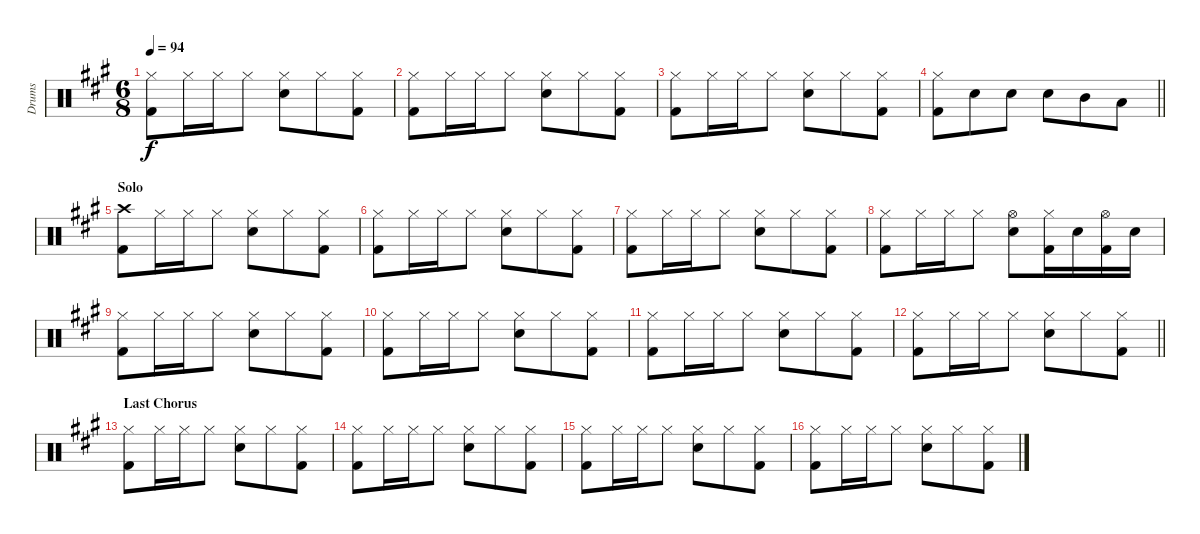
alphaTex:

\track ("Drums" "Drums") {instrument percussion}
\staff {score}
\articulation defaults
\ts (6 8)
\tempo 94
\clef neutral
\ks a
("Hi-Hat (closed)" "Kick (hit) 2").8{dy f} "Hi-Hat (closed)".16 "Hi-Hat (closed)".16 "Hi-Hat (closed)".8 ("Hi-Hat (closed)" "Snare (hit) 2").8 "Hi-Hat (closed)".8 ("Hi-Hat (closed)" "Kick (hit) 2").8 |
("Hi-Hat (closed)" "Kick (hit) 2").8 "Hi-Hat (closed)".16 "Hi-Hat (closed)".16 "Hi-Hat (closed)".8 ("Hi-Hat (closed)" "Snare (hit) 2").8 "Hi-Hat (closed)".8 ("Hi-Hat (closed)" "Kick (hit) 2").8 |
("Hi-Hat (closed)" "Kick (hit) 2").8 "Hi-Hat (closed)".16 "Hi-Hat (closed)".16 "Hi-Hat (closed)".8 ("Hi-Hat (closed)" "Snare (hit) 2").8 "Hi-Hat (closed)".8 ("Hi-Hat (closed)" "Kick (hit) 2").8 |
\barLineRight lightlight
("Hi-Hat (closed)" "Kick (hit) 2").8 "Snare (hit) 2".8 "Snare (hit) 2".8 "Snare (hit) 2".8 "Mid Tom (hit)".8 "Low Tom (hit)".8 |
\section ("" "Solo")
("Crash high (hit)" "Kick (hit) 2").8 "Hi-Hat (closed)".16 "Hi-Hat (closed)".16 "Hi-Hat (closed)".8 ("Hi-Hat (closed)" "Snare (hit) 2").8 "Hi-Hat (closed)".8 ("Hi-Hat (closed)" "Kick (hit) 2").8 |
("Hi-Hat (closed)" "Kick (hit) 2").8 "Hi-Hat (closed)".16 "Hi-Hat (closed)".16 "Hi-Hat (closed)".8 ("Hi-Hat (closed)" "Snare (hit) 2").8 "Hi-Hat (closed)".8 ("Hi-Hat (closed)" "Kick (hit) 2").8 |
("Hi-Hat (closed)" "Kick (hit) 2").8 "Hi-Hat (closed)".16 "Hi-Hat (closed)".16 "Hi-Hat (closed)".8 ("Hi-Hat (closed)" "Snare (hit) 2").8 "Hi-Hat (closed)".8 ("Hi-Hat (closed)" "Kick (hit) 2").8 |
("Hi-Hat (closed)" "Kick (hit) 2").8 "Hi-Hat (closed)".16 "Hi-Hat (closed)".16 "Hi-Hat (closed)".8 ("Hi-Hat (open)" "Snare (hit) 2").8 ("Hi-Hat (closed)" "Kick (hit) 2").16 "Snare (hit) 2".16 ("Hi-Hat (open)" "Kick (hit) 2").16 "Snare (hit) 2".16 |
("Hi-Hat (closed)" "Kick (hit) 2").8 "Hi-Hat (closed)".16 "Hi-Hat (closed)".16 "Hi-Hat (closed)".8 ("Hi-Hat (closed)" "Snare (hit) 2").8 "Hi-Hat (closed)".8 ("Hi-Hat (closed)" "Kick (hit) 2").8 |
("Hi-Hat (closed)" "Kick (hit) 2").8 "Hi-Hat (closed)".16 "Hi-Hat (closed)".16 "Hi-Hat (closed)".8 ("Hi-Hat (closed)" "Snare (hit) 2").8 "Hi-Hat (closed)".8 ("Hi-Hat (closed)" "Kick (hit) 2").8 |
("Hi-Hat (closed)" "Kick (hit) 2").8 "Hi-Hat (closed)".16 "Hi-Hat (closed)".16 "Hi-Hat (closed)".8 ("Hi-Hat (closed)" "Snare (hit) 2").8 "Hi-Hat (closed)".8 ("Hi-Hat (closed)" "Kick (hit) 2").8 |
\barLineRight lightlight
("Hi-Hat (closed)" "Kick (hit) 2").8 "Hi-Hat (closed)".16 "Hi-Hat (closed)".16 "Hi-Hat (closed)".8 ("Hi-Hat (closed)" "Snare (hit) 2").8 "Hi-Hat (closed)".8 ("Hi-Hat (closed)" "Kick (hit) 2").8 |
\section ("" "Last Chorus")
("Hi-Hat (closed)" "Kick (hit) 2").8 "Hi-Hat (closed)".16 "Hi-Hat (closed)".16 "Hi-Hat (closed)".8 ("Hi-Hat (closed)" "Snare (hit) 2").8 "Hi-Hat (closed)".8 ("Hi-Hat (closed)" "Kick (hit) 2").8 |
("Hi-Hat (closed)" "Kick (hit) 2").8 "Hi-Hat (closed)".16 "Hi-Hat (closed)".16 "Hi-Hat (closed)".8 ("Hi-Hat (closed)" "Snare (hit) 2").8 "Hi-Hat (closed)".8 ("Hi-Hat (closed)" "Kick (hit) 2").8 |
("Hi-Hat (closed)" "Kick (hit) 2").8 "Hi-Hat (closed)".16 "Hi-Hat (closed)".16 "Hi-Hat (closed)".8 ("Hi-Hat (closed)" "Snare (hit) 2").8 "Hi-Hat (closed)".8 ("Hi-Hat (closed)" "Kick (hit) 2").8 |
("Hi-Hat (closed)" "Kick (hit) 2").8 "Hi-Hat (closed)".16 "Hi-Hat (closed)".16 "Hi-Hat (closed)".8 ("Hi-Hat (closed)" "Snare (hit) 2").8 "Hi-Hat (closed)".8 ("Hi-Hat (closed)" "Kick (hit) 2").8
